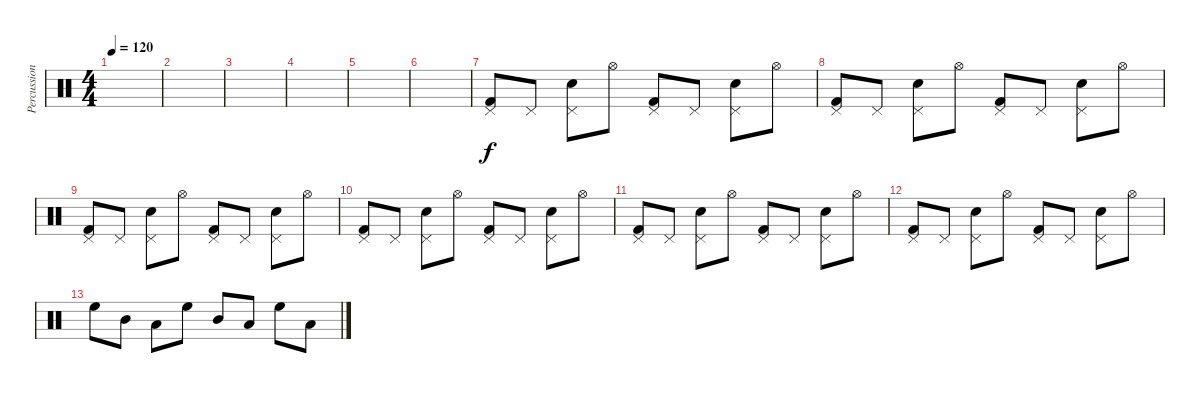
\track ("Percussions" "Percussion") {instrument percussion}
\staff {score}
\articulation defaults
\ts (4 4)
\tempo 120
\clef neutral
\ks c
|
|
|
|
|
|
("Kick (hit) 2" "Pedal Hi-Hat (hit)").8 "Pedal Hi-Hat (hit)".8 ("Pedal Hi-Hat (hit)" "Snare (hit) 2").8 "Hi-Hat (open)".8 ("Kick (hit) 2" "Pedal Hi-Hat (hit)").8 "Pedal Hi-Hat (hit)".8 ("Pedal Hi-Hat (hit)" "Snare (hit) 2").8 "Hi-Hat (open)".8 |
("Kick (hit) 2" "Pedal Hi-Hat (hit)").8 "Pedal Hi-Hat (hit)".8 ("Pedal Hi-Hat (hit)" "Snare (hit) 2").8 "Hi-Hat (open)".8 ("Kick (hit) 2" "Pedal Hi-Hat (hit)").8 "Pedal Hi-Hat (hit)".8 ("Pedal Hi-Hat (hit)" "Snare (hit) 2").8 "Hi-Hat (open)".8 |
("Kick (hit) 2" "Pedal Hi-Hat (hit)").8 "Pedal Hi-Hat (hit)".8 ("Pedal Hi-Hat (hit)" "Snare (hit) 2").8 "Hi-Hat (open)".8 ("Kick (hit) 2" "Pedal Hi-Hat (hit)").8 "Pedal Hi-Hat (hit)".8 ("Pedal Hi-Hat (hit)" "Snare (hit) 2").8 "Hi-Hat (open)".8 |
("Kick (hit) 2" "Pedal Hi-Hat (hit)").8 "Pedal Hi-Hat (hit)".8 ("Pedal Hi-Hat (hit)" "Snare (hit) 2").8 "Hi-Hat (open)".8 ("Kick (hit) 2" "Pedal Hi-Hat (hit)").8 "Pedal Hi-Hat (hit)".8 ("Pedal Hi-Hat (hit)" "Snare (hit) 2").8 "Hi-Hat (open)".8 |
("Kick (hit) 2" "Pedal Hi-Hat (hit)").8 "Pedal Hi-Hat (hit)".8 ("Pedal Hi-Hat (hit)" "Snare (hit) 2").8 "Hi-Hat (open)".8 ("Kick (hit) 2" "Pedal Hi-Hat (hit)").8 "Pedal Hi-Hat (hit)".8 ("Pedal Hi-Hat (hit)" "Snare (hit) 2").8 "Hi-Hat (open)".8 |
("Kick (hit) 2" "Pedal Hi-Hat (hit)").8 "Pedal Hi-Hat (hit)".8 ("Pedal Hi-Hat (hit)" "Snare (hit) 2").8 "Hi-Hat (open)".8 ("Kick (hit) 2" "Pedal Hi-Hat (hit)").8 "Pedal Hi-Hat (hit)".8 ("Pedal Hi-Hat (hit)" "Snare (hit) 2").8 "Hi-Hat (open)".8 |
"High Floor Tom (hit)".8 "Mid Tom (hit)".8 "Low Tom (hit)".8 "High Floor Tom (hit)".8 "Mid Tom (hit)".8 "Low Floor Tom (hit)".8 "High Floor Tom (hit)".8 "Low Tom (hit)".8
